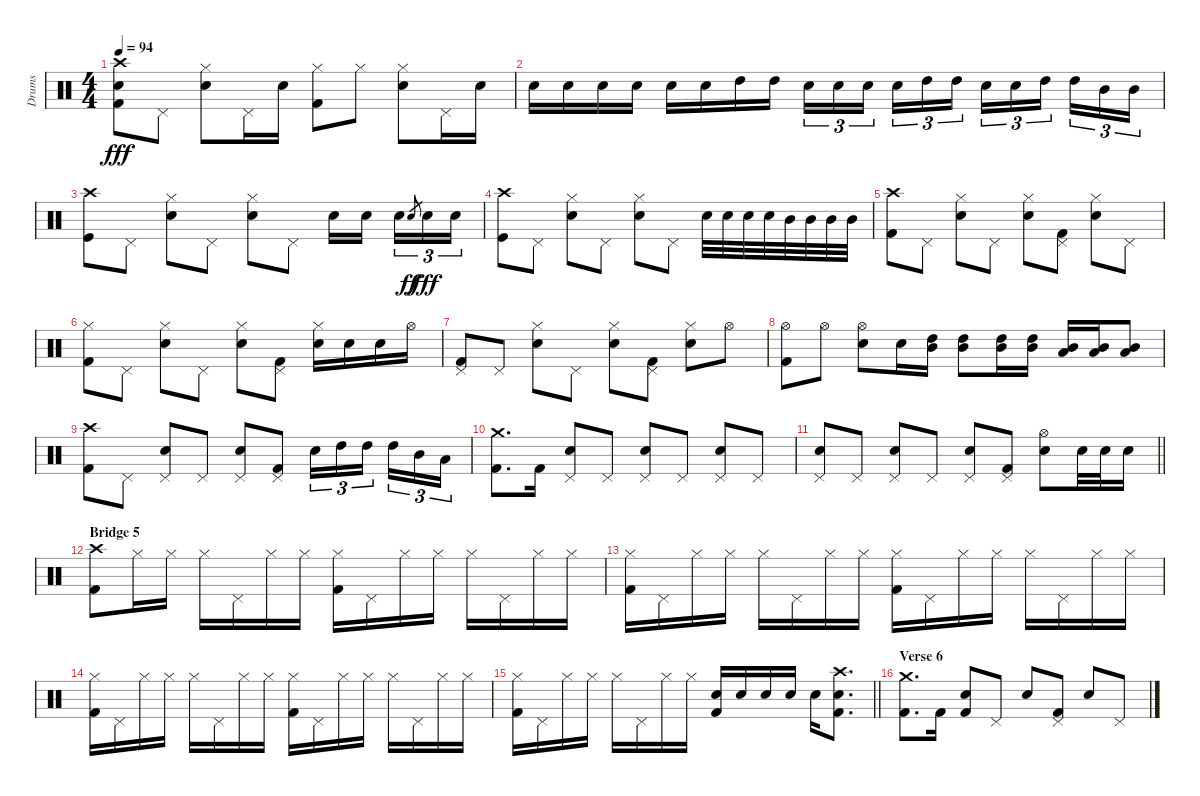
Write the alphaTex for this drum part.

\track ("Drums" "Drums") {instrument percussion}
\staff {score}
\articulation defaults
\ts (4 4)
\tempo 94
\clef neutral
\ks c
("Crash high (hit)" "Electric Snare (hit)" "Kick (hit) 2").8{dy fff} "Pedal Hi-Hat (hit)".8 ("Hi-Hat (closed)" "Electric Snare (hit)").8 "Pedal Hi-Hat (hit)".16 "Electric Snare (hit)".16 ("Hi-Hat (closed)" "Kick (hit) 2").8 "Hi-Hat (closed)".8 ("Hi-Hat (closed)" "Electric Snare (hit)").8 "Pedal Hi-Hat (hit)".16 "Electric Snare (hit)".16 |
"Electric Snare (hit)".16 "Electric Snare (hit)".16 "Electric Snare (hit)".16 "Electric Snare (hit)".16 "Electric Snare (hit)".16 "Electric Snare (hit)".16 "High Tom (hit)".16 "High Tom (hit)".16 "Electric Snare (hit)".16{tu (3 2)} "Electric Snare (hit)".16{tu (3 2)} "Electric Snare (hit)".16{tu (3 2) beam splitsecondary} "Electric Snare (hit)".16{tu (3 2)} "High Tom (hit)".16{tu (3 2)} "High Tom (hit)".16{tu (3 2)} "Electric Snare (hit)".16{tu (3 2)} "Electric Snare (hit)".16{tu (3 2)} "High Tom (hit)".16{tu (3 2) beam splitsecondary} "High Tom (hit)".16{tu (3 2)} "Mid Tom (hit)".16{tu (3 2)} "Mid Tom (hit)".16{tu (3 2)} |
("Crash high (hit)" "Kick (hit)").8 "Pedal Hi-Hat (hit)".8 ("Hi-Hat (closed)" "Electric Snare (hit)").8 "Pedal Hi-Hat (hit)".8 ("Hi-Hat (closed)" "Electric Snare (hit)").8 "Pedal Hi-Hat (hit)".8 "Electric Snare (hit)".16 "Electric Snare (hit)".16{beam splitsecondary} "Electric Snare (hit)".16{tu (3 2)} "Electric Snare (hit)".8{gr dy ff} "Electric Snare (hit)".16{tu (3 2) dy fff} "Electric Snare (hit)".16{tu (3 2)} |
("Crash high (hit)" "Kick (hit)").8 "Pedal Hi-Hat (hit)".8 ("Hi-Hat (closed)" "Electric Snare (hit)").8 "Pedal Hi-Hat (hit)".8 ("Hi-Hat (closed)" "Electric Snare (hit)").8 "Pedal Hi-Hat (hit)".8 "Electric Snare (hit)".32 "Electric Snare (hit)".32 "Electric Snare (hit)".32 "Electric Snare (hit)".32 "Mid Tom (hit)".32 "Mid Tom (hit)".32 "Mid Tom (hit)".32 "Mid Tom (hit)".32 |
("Crash high (hit)" "Kick (hit) 2").8 "Pedal Hi-Hat (hit)".8 ("Hi-Hat (closed)" "Electric Snare (hit)").8 "Pedal Hi-Hat (hit)".8 ("Hi-Hat (closed)" "Electric Snare (hit)").8 ("Pedal Hi-Hat (hit)" "Kick (hit) 2").8 ("Hi-Hat (closed)" "Electric Snare (hit)").8 "Pedal Hi-Hat (hit)".8 |
("Hi-Hat (closed)" "Kick (hit) 2").8 "Pedal Hi-Hat (hit)".8 ("Hi-Hat (closed)" "Electric Snare (hit)").8 "Pedal Hi-Hat (hit)".8 ("Hi-Hat (closed)" "Electric Snare (hit)").8 ("Pedal Hi-Hat (hit)" "Kick (hit) 2").8 ("Hi-Hat (closed)" "Electric Snare (hit)").16 "Electric Snare (hit)".16 "Electric Snare (hit)".16 "Hi-Hat (open)".16 |
("Pedal Hi-Hat (hit)" "Kick (hit) 2").8 "Pedal Hi-Hat (hit)".8 ("Hi-Hat (closed)" "Electric Snare (hit)").8 "Pedal Hi-Hat (hit)".8 ("Hi-Hat (closed)" "Electric Snare (hit)").8 ("Pedal Hi-Hat (hit)" "Kick (hit) 2").8 ("Hi-Hat (closed)" "Electric Snare (hit)").8 "Hi-Hat (open)".8 |
("Hi-Hat (open)" "Kick (hit) 2").8 "Hi-Hat (open)".8 ("Hi-Hat (open)" "Electric Snare (hit)").8 "Electric Snare (hit)".16 ("Mid Tom (hit)" "High Tom (hit)").16 ("Mid Tom (hit)" "High Tom (hit)").8 ("Mid Tom (hit)" "High Tom (hit)").16 ("Mid Tom (hit)" "High Tom (hit)").16 ("Low Tom (hit)" "Mid Tom (hit)").16 ("Low Tom (hit)" "Mid Tom (hit)").16 ("Low Tom (hit)" "Mid Tom (hit)").8 |
("Crash high (hit)" "Kick (hit) 2").8 "Pedal Hi-Hat (hit)".8 ("Pedal Hi-Hat (hit)" "Electric Snare (hit)").8 "Pedal Hi-Hat (hit)".8 ("Pedal Hi-Hat (hit)" "Electric Snare (hit)").8 ("Pedal Hi-Hat (hit)" "Kick (hit) 2").8 "Electric Snare (hit)".16{tu (3 2)} "High Tom (hit)".16{tu (3 2)} "High Tom (hit)".16{tu (3 2) beam splitsecondary} "High Tom (hit)".16{tu (3 2)} "Mid Tom (hit)".16{tu (3 2)} "Low Tom (hit)".16{tu (3 2)} |
("Crash medium (hit)" "Kick (hit) 2").8{d} "Kick (hit) 2".16 ("Pedal Hi-Hat (hit)" "Electric Snare (hit)").8 "Pedal Hi-Hat (hit)".8 ("Pedal Hi-Hat (hit)" "Electric Snare (hit)").8 "Pedal Hi-Hat (hit)".8 ("Pedal Hi-Hat (hit)" "Electric Snare (hit)").8 "Pedal Hi-Hat (hit)".8 |
\barLineRight lightlight
("Pedal Hi-Hat (hit)" "Electric Snare (hit)").8 "Pedal Hi-Hat (hit)".8 ("Pedal Hi-Hat (hit)" "Electric Snare (hit)").8 "Pedal Hi-Hat (hit)".8 ("Pedal Hi-Hat (hit)" "Electric Snare (hit)").8 ("Pedal Hi-Hat (hit)" "Kick (hit) 2").8 ("Hi-Hat (open)" "Electric Snare (hit)").8 "Electric Snare (hit)".32 "Electric Snare (hit)".32 "Electric Snare (hit)".16 |
\section ("" "Bridge 5")
("Crash high (hit)" "Kick (hit) 2").8 "Hi-Hat (closed)".16 "Hi-Hat (closed)".16 "Hi-Hat (closed)".16 "Pedal Hi-Hat (hit)".16 "Hi-Hat (closed)".16 "Hi-Hat (closed)".16 ("Hi-Hat (closed)" "Kick (hit) 2").16 "Pedal Hi-Hat (hit)".16 "Hi-Hat (closed)".16 "Hi-Hat (closed)".16 "Hi-Hat (closed)".16 "Pedal Hi-Hat (hit)".16 "Hi-Hat (closed)".16 "Hi-Hat (closed)".16 |
("Hi-Hat (closed)" "Kick (hit) 2").16 "Pedal Hi-Hat (hit)".16 "Hi-Hat (closed)".16 "Hi-Hat (closed)".16 "Hi-Hat (closed)".16 "Pedal Hi-Hat (hit)".16 "Hi-Hat (closed)".16 "Hi-Hat (closed)".16 ("Hi-Hat (closed)" "Kick (hit) 2").16 "Pedal Hi-Hat (hit)".16 "Hi-Hat (closed)".16 "Hi-Hat (closed)".16 "Hi-Hat (closed)".16 "Pedal Hi-Hat (hit)".16 "Hi-Hat (closed)".16 "Hi-Hat (closed)".16 |
("Hi-Hat (closed)" "Kick (hit) 2").16 "Pedal Hi-Hat (hit)".16 "Hi-Hat (closed)".16 "Hi-Hat (closed)".16 "Hi-Hat (closed)".16 "Pedal Hi-Hat (hit)".16 "Hi-Hat (closed)".16 "Hi-Hat (closed)".16 ("Hi-Hat (closed)" "Kick (hit) 2").16 "Pedal Hi-Hat (hit)".16 "Hi-Hat (closed)".16 "Hi-Hat (closed)".16 "Hi-Hat (closed)".16 "Pedal Hi-Hat (hit)".16 "Hi-Hat (closed)".16 "Hi-Hat (closed)".16 |
\barLineRight lightlight
("Hi-Hat (closed)" "Kick (hit) 2").16 "Pedal Hi-Hat (hit)".16 "Hi-Hat (closed)".16 "Hi-Hat (closed)".16 "Hi-Hat (closed)".16 "Pedal Hi-Hat (hit)".16 "Hi-Hat (closed)".16 "Hi-Hat (closed)".16 ("Electric Snare (hit)" "Kick (hit) 2").16 "Electric Snare (hit)".16 "Electric Snare (hit)".16 "Electric Snare (hit)".16 "Electric Snare (hit)".16 ("Crash high (hit)" "Electric Snare (hit)" "Kick (hit) 2").8{d} |
\section ("" "Verse 6")
("Crash medium (hit)" "Kick (hit) 2").8{d} "Kick (hit) 2".16 ("Electric Snare (hit)" "Kick (hit) 2").8 "Pedal Hi-Hat (hit)".8 "Electric Snare (hit)".8 ("Pedal Hi-Hat (hit)" "Kick (hit) 2").8 "Electric Snare (hit)".8 "Pedal Hi-Hat (hit)".8
